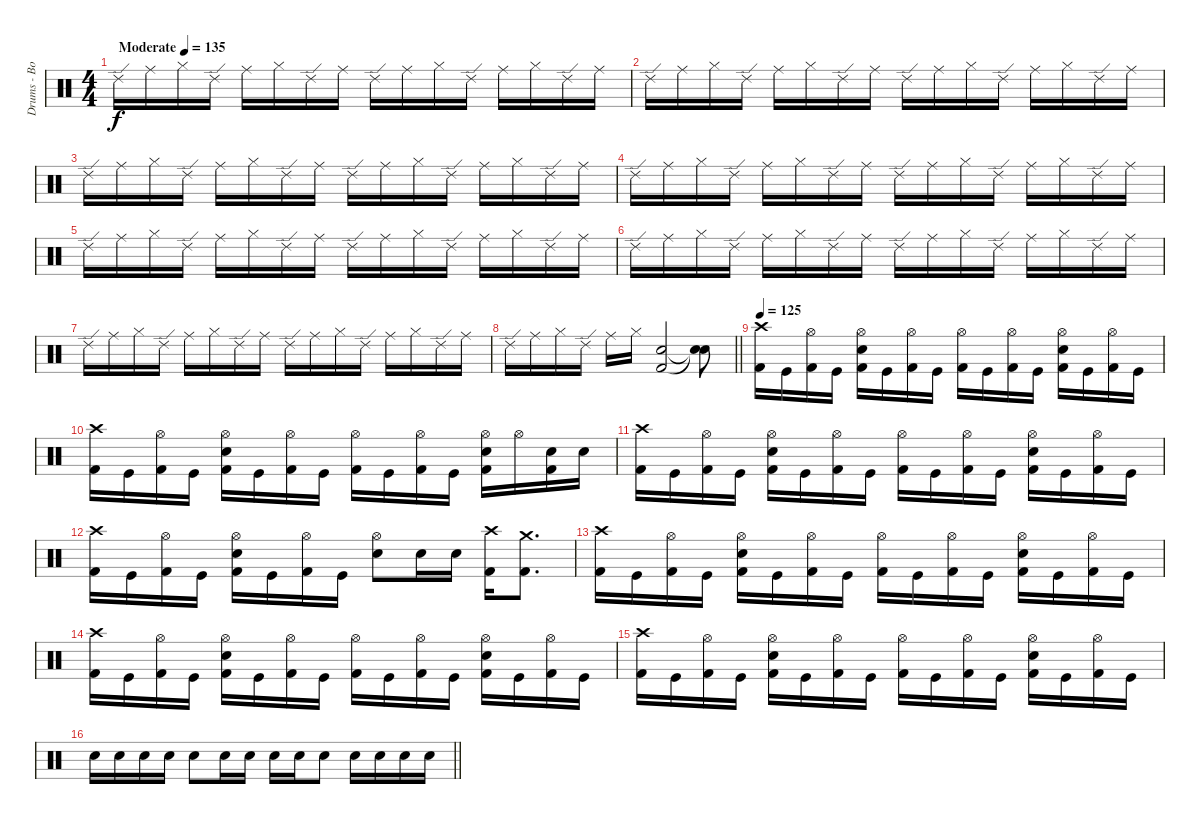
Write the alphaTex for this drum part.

\track ("Drums - Bobby Schottkowski" "Drums - Bo") {instrument percussion}
\staff {score}
\articulation defaults
\ts (4 4)
\tempo (135 "Moderate")
\clef neutral
\ks c "Ride (edge) 2".16{dy f} "Ride (middle)".16 "Hi-Hat (closed)".16 "Ride (edge) 2".16 "Ride (middle)".16 "Hi-Hat (closed)".16 "Ride (edge) 2".16 "Ride (middle)".16 "Ride (edge) 2".16 "Ride (middle)".16 "Hi-Hat (closed)".16 "Ride (edge) 2".16 "Ride (middle)".16 "Hi-Hat (closed)".16 "Ride (edge) 2".16 "Ride (middle)".16
|
"Ride (edge) 2".16 "Ride (middle)".16 "Hi-Hat (closed)".16 "Ride (edge) 2".16 "Ride (middle)".16 "Hi-Hat (closed)".16 "Ride (edge) 2".16 "Ride (middle)".16 "Ride (edge) 2".16 "Ride (middle)".16 "Hi-Hat (closed)".16 "Ride (edge) 2".16 "Ride (middle)".16 "Hi-Hat (closed)".16 "Ride (edge) 2".16 "Ride (middle)".16 |
"Ride (edge) 2".16 "Ride (middle)".16 "Hi-Hat (closed)".16 "Ride (edge) 2".16 "Ride (middle)".16 "Hi-Hat (closed)".16 "Ride (edge) 2".16 "Ride (middle)".16 "Ride (edge) 2".16 "Ride (middle)".16 "Hi-Hat (closed)".16 "Ride (edge) 2".16 "Ride (middle)".16 "Hi-Hat (closed)".16 "Ride (edge) 2".16 "Ride (middle)".16 |
"Ride (edge) 2".16 "Ride (middle)".16 "Hi-Hat (closed)".16 "Ride (edge) 2".16 "Ride (middle)".16 "Hi-Hat (closed)".16 "Ride (edge) 2".16 "Ride (middle)".16 "Ride (edge) 2".16 "Ride (middle)".16 "Hi-Hat (closed)".16 "Ride (edge) 2".16 "Ride (middle)".16 "Hi-Hat (closed)".16 "Ride (edge) 2".16 "Ride (middle)".16 |
"Ride (edge) 2".16 "Ride (middle)".16 "Hi-Hat (closed)".16 "Ride (edge) 2".16 "Ride (middle)".16 "Hi-Hat (closed)".16 "Ride (edge) 2".16 "Ride (middle)".16 "Ride (edge) 2".16 "Ride (middle)".16 "Hi-Hat (closed)".16 "Ride (edge) 2".16 "Ride (middle)".16 "Hi-Hat (closed)".16 "Ride (edge) 2".16 "Ride (middle)".16 |
"Ride (edge) 2".16 "Ride (middle)".16 "Hi-Hat (closed)".16 "Ride (edge) 2".16 "Ride (middle)".16 "Hi-Hat (closed)".16 "Ride (edge) 2".16 "Ride (middle)".16 "Ride (edge) 2".16 "Ride (middle)".16 "Hi-Hat (closed)".16 "Ride (edge) 2".16 "Ride (middle)".16 "Hi-Hat (closed)".16 "Ride (edge) 2".16 "Ride (middle)".16 |
"Ride (edge) 2".16 "Ride (middle)".16 "Hi-Hat (closed)".16 "Ride (edge) 2".16 "Ride (middle)".16 "Hi-Hat (closed)".16 "Ride (edge) 2".16 "Ride (middle)".16 "Ride (edge) 2".16 "Ride (middle)".16 "Hi-Hat (closed)".16 "Ride (edge) 2".16 "Ride (middle)".16 "Hi-Hat (closed)".16 "Ride (edge) 2".16 "Ride (middle)".16 |
\barLineRight lightlight "Ride (edge) 2".16 "Ride (middle)".16 "Hi-Hat (closed)".16 "Ride (edge) 2".16 "Ride (middle)".16 "Hi-Hat (closed)".16
("Kick (hit) 2" "Snare (hit) 2").2 ("Snare (hit)"{t} "Snare (hit)"{t}).8 |
\tempo 125
("Kick (hit) 2" "Crash high (hit)").16 "Kick (hit)".16 ("Kick (hit) 2" "Hi-Hat (open)").16 "Kick (hit)".16 ("Kick (hit) 2" "Snare (hit) 2" "Hi-Hat (open)").16 "Kick (hit)".16 ("Kick (hit) 2" "Hi-Hat (open)").16 "Kick (hit)".16 ("Kick (hit) 2" "Hi-Hat (open)").16 "Kick (hit)".16 ("Kick (hit) 2" "Hi-Hat (open)").16 "Kick (hit)".16 ("Kick (hit) 2" "Snare (hit) 2" "Hi-Hat (open)").16 "Kick (hit)".16 ("Kick (hit) 2" "Hi-Hat (open)").16 "Kick (hit)".16 |
("Kick (hit) 2" "Crash high (hit)").16 "Kick (hit)".16 ("Kick (hit) 2" "Hi-Hat (open)").16 "Kick (hit)".16 ("Kick (hit) 2" "Snare (hit) 2" "Hi-Hat (open)").16 "Kick (hit)".16 ("Kick (hit) 2" "Hi-Hat (open)").16 "Kick (hit)".16 ("Kick (hit) 2" "Hi-Hat (open)").16 "Kick (hit)".16 ("Kick (hit) 2" "Hi-Hat (open)").16 "Kick (hit)".16 ("Kick (hit) 2" "Snare (hit) 2" "Hi-Hat (open)").16 "Hi-Hat (open)".16 ("Kick (hit) 2" "Snare (hit) 2").16 "Snare (hit) 2".16 |
("Kick (hit) 2" "Crash high (hit)").16 "Kick (hit)".16 ("Kick (hit) 2" "Hi-Hat (open)").16 "Kick (hit)".16 ("Kick (hit) 2" "Snare (hit) 2" "Hi-Hat (open)").16 "Kick (hit)".16 ("Kick (hit) 2" "Hi-Hat (open)").16 "Kick (hit)".16 ("Kick (hit) 2" "Hi-Hat (open)").16 "Kick (hit)".16 ("Kick (hit) 2" "Hi-Hat (open)").16 "Kick (hit)".16 ("Kick (hit) 2" "Snare (hit) 2" "Hi-Hat (open)").16 "Kick (hit)".16 ("Kick (hit) 2" "Hi-Hat (open)").16 "Kick (hit)".16 |
("Kick (hit) 2" "Crash high (hit)").16 "Kick (hit)".16 ("Kick (hit) 2" "Hi-Hat (open)").16 "Kick (hit)".16 ("Kick (hit) 2" "Snare (hit) 2" "Hi-Hat (open)").16 "Kick (hit)".16 ("Kick (hit) 2" "Hi-Hat (open)").16 "Kick (hit)".16 ("Snare (hit) 2" "Hi-Hat (open)").8 "Snare (hit) 2".16 "Snare (hit) 2".16 ("Kick (hit) 2" "Crash high (hit)").16 ("Kick (hit) 2" "Crash medium (hit)").8{d} |
("Kick (hit) 2" "Crash high (hit)").16 "Kick (hit)".16 ("Kick (hit) 2" "Hi-Hat (open)").16 "Kick (hit)".16 ("Kick (hit) 2" "Snare (hit) 2" "Hi-Hat (open)").16 "Kick (hit)".16 ("Kick (hit) 2" "Hi-Hat (open)").16 "Kick (hit)".16 ("Kick (hit) 2" "Hi-Hat (open)").16 "Kick (hit)".16 ("Kick (hit) 2" "Hi-Hat (open)").16 "Kick (hit)".16 ("Kick (hit) 2" "Snare (hit) 2" "Hi-Hat (open)").16 "Kick (hit)".16 ("Kick (hit) 2" "Hi-Hat (open)").16 "Kick (hit)".16 |
("Kick (hit) 2" "Crash high (hit)").16 "Kick (hit)".16 ("Kick (hit) 2" "Hi-Hat (open)").16 "Kick (hit)".16 ("Kick (hit) 2" "Snare (hit) 2" "Hi-Hat (open)").16 "Kick (hit)".16 ("Kick (hit) 2" "Hi-Hat (open)").16 "Kick (hit)".16 ("Kick (hit) 2" "Hi-Hat (open)").16 "Kick (hit)".16 ("Kick (hit) 2" "Hi-Hat (open)").16 "Kick (hit)".16 ("Kick (hit) 2" "Snare (hit) 2" "Hi-Hat (open)").16 "Kick (hit)".16 ("Kick (hit) 2" "Hi-Hat (open)").16 "Kick (hit)".16 |
("Kick (hit) 2" "Crash high (hit)").16 "Kick (hit)".16 ("Kick (hit) 2" "Hi-Hat (open)").16 "Kick (hit)".16 ("Kick (hit) 2" "Snare (hit) 2" "Hi-Hat (open)").16 "Kick (hit)".16 ("Kick (hit) 2" "Hi-Hat (open)").16 "Kick (hit)".16 ("Kick (hit) 2" "Hi-Hat (open)").16 "Kick (hit)".16 ("Kick (hit) 2" "Hi-Hat (open)").16 "Kick (hit)".16 ("Kick (hit) 2" "Snare (hit) 2" "Hi-Hat (open)").16 "Kick (hit)".16 ("Kick (hit) 2" "Hi-Hat (open)").16 "Kick (hit)".16 |
\barLineRight lightlight "Snare (hit) 2".16 "Snare (hit) 2".16 "Snare (hit) 2".16 "Snare (hit) 2".16 "Snare (hit) 2".8 "Snare (hit) 2".16 "Snare (hit) 2".16 "Snare (hit) 2".16 "Snare (hit) 2".16 "Snare (hit) 2".8 "Snare (hit) 2".16 "Snare (hit) 2".16 "Snare (hit) 2".16 "Snare (hit) 2".16
